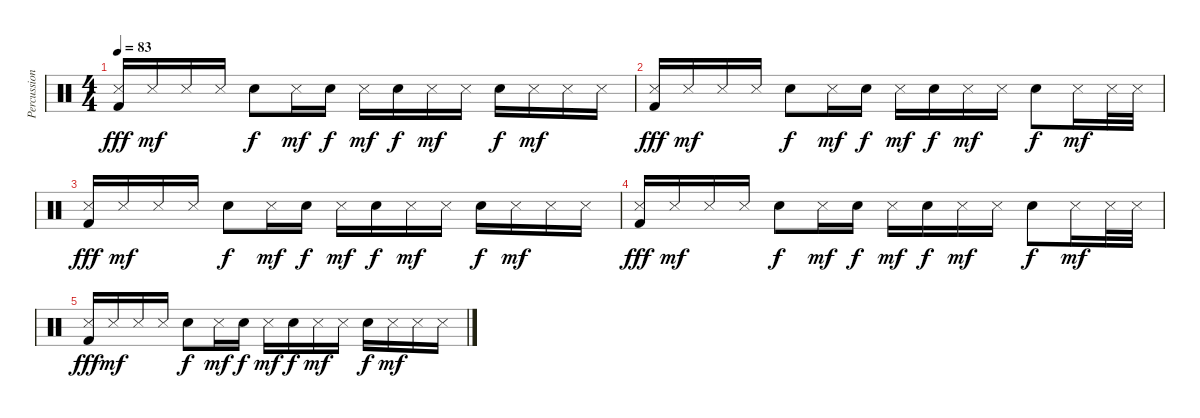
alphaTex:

\track ("Percussion" "Percussion") {instrument percussion}
\staff {score}
\articulation defaults
\ts (4 4)
\tempo 83
\clef neutral
\ks c
("Snare (side stick) 3" "Kick (hit) 2").16{dy fff} "Snare (side stick) 3".16{dy mf} "Snare (side stick) 3".16 "Snare (side stick) 3".16 "Electric Snare (hit)".8{dy f} "Snare (side stick) 3".16{dy mf} "Electric Snare (hit)".16{dy f} "Snare (side stick) 3".16{dy mf} "Electric Snare (hit)".16{dy f} "Snare (side stick) 3".16{dy mf} "Snare (side stick) 3".16 "Electric Snare (hit)".16{dy f} "Snare (side stick) 3".16{dy mf} "Snare (side stick) 3".16 "Snare (side stick) 3".16 |
("Snare (side stick) 3" "Kick (hit) 2").16{dy fff} "Snare (side stick) 3".16{dy mf} "Snare (side stick) 3".16 "Snare (side stick) 3".16 "Electric Snare (hit)".8{dy f} "Snare (side stick) 3".16{dy mf} "Electric Snare (hit)".16{dy f} "Snare (side stick) 3".16{dy mf} "Electric Snare (hit)".16{dy f} "Snare (side stick) 3".16{dy mf} "Snare (side stick) 3".16 "Electric Snare (hit)".8{dy f} "Snare (side stick) 3".16{dy mf} "Snare (side stick) 3".32 "Snare (side stick) 3".32 |
("Snare (side stick) 3" "Kick (hit) 2").16{dy fff} "Snare (side stick) 3".16{dy mf} "Snare (side stick) 3".16 "Snare (side stick) 3".16 "Electric Snare (hit)".8{dy f} "Snare (side stick) 3".16{dy mf} "Electric Snare (hit)".16{dy f} "Snare (side stick) 3".16{dy mf} "Electric Snare (hit)".16{dy f} "Snare (side stick) 3".16{dy mf} "Snare (side stick) 3".16 "Electric Snare (hit)".16{dy f} "Snare (side stick) 3".16{dy mf} "Snare (side stick) 3".16 "Snare (side stick) 3".16 |
("Snare (side stick) 3" "Kick (hit) 2").16{dy fff} "Snare (side stick) 3".16{dy mf} "Snare (side stick) 3".16 "Snare (side stick) 3".16 "Electric Snare (hit)".8{dy f} "Snare (side stick) 3".16{dy mf} "Electric Snare (hit)".16{dy f} "Snare (side stick) 3".16{dy mf} "Electric Snare (hit)".16{dy f} "Snare (side stick) 3".16{dy mf} "Snare (side stick) 3".16 "Electric Snare (hit)".8{dy f} "Snare (side stick) 3".16{dy mf} "Snare (side stick) 3".32 "Snare (side stick) 3".32 |
("Snare (side stick) 3" "Kick (hit) 2").16{dy fff} "Snare (side stick) 3".16{dy mf} "Snare (side stick) 3".16 "Snare (side stick) 3".16 "Electric Snare (hit)".8{dy f} "Snare (side stick) 3".16{dy mf} "Electric Snare (hit)".16{dy f} "Snare (side stick) 3".16{dy mf} "Electric Snare (hit)".16{dy f} "Snare (side stick) 3".16{dy mf} "Snare (side stick) 3".16 "Electric Snare (hit)".16{dy f} "Snare (side stick) 3".16{dy mf} "Snare (side stick) 3".16 "Snare (side stick) 3".16
